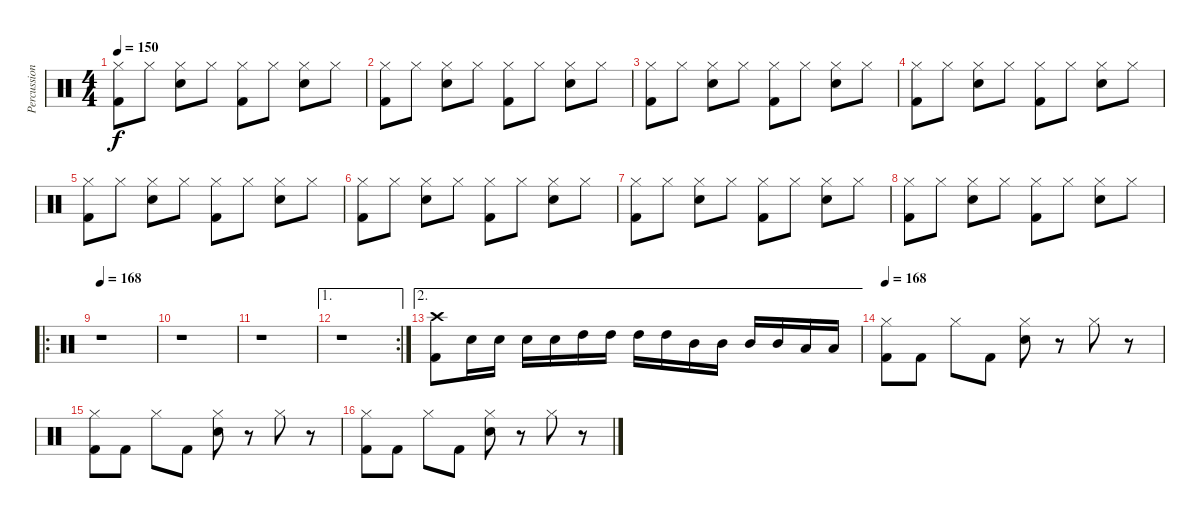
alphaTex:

\track ("Percussion" "Percussion") {instrument percussion}
\staff {score}
\articulation defaults
\ts (4 4)
\tempo 150
\clef neutral
\ks c
("Hi-Hat (closed)" "Kick (hit) 2").8{dy f} "Hi-Hat (closed)".8 ("Hi-Hat (closed)" "Snare (hit) 2").8 "Hi-Hat (closed)".8 ("Hi-Hat (closed)" "Kick (hit) 2").8 "Hi-Hat (closed)".8 ("Hi-Hat (closed)" "Snare (hit) 2").8 "Hi-Hat (closed)".8 |
("Hi-Hat (closed)" "Kick (hit) 2").8 "Hi-Hat (closed)".8 ("Hi-Hat (closed)" "Snare (hit) 2").8 "Hi-Hat (closed)".8 ("Hi-Hat (closed)" "Kick (hit) 2").8 "Hi-Hat (closed)".8 ("Hi-Hat (closed)" "Snare (hit) 2").8 "Hi-Hat (closed)".8 |
("Hi-Hat (closed)" "Kick (hit) 2").8 "Hi-Hat (closed)".8 ("Hi-Hat (closed)" "Snare (hit) 2").8 "Hi-Hat (closed)".8 ("Hi-Hat (closed)" "Kick (hit) 2").8 "Hi-Hat (closed)".8 ("Hi-Hat (closed)" "Snare (hit) 2").8 "Hi-Hat (closed)".8 |
("Hi-Hat (closed)" "Kick (hit) 2").8 "Hi-Hat (closed)".8 ("Hi-Hat (closed)" "Snare (hit) 2").8 "Hi-Hat (closed)".8 ("Hi-Hat (closed)" "Kick (hit) 2").8 "Hi-Hat (closed)".8 ("Hi-Hat (closed)" "Snare (hit) 2").8 "Hi-Hat (closed)".8 |
("Hi-Hat (closed)" "Kick (hit) 2").8 "Hi-Hat (closed)".8 ("Hi-Hat (closed)" "Snare (hit) 2").8 "Hi-Hat (closed)".8 ("Hi-Hat (closed)" "Kick (hit) 2").8 "Hi-Hat (closed)".8 ("Hi-Hat (closed)" "Snare (hit) 2").8 "Hi-Hat (closed)".8 |
("Hi-Hat (closed)" "Kick (hit) 2").8 "Hi-Hat (closed)".8 ("Hi-Hat (closed)" "Snare (hit) 2").8 "Hi-Hat (closed)".8 ("Hi-Hat (closed)" "Kick (hit) 2").8 "Hi-Hat (closed)".8 ("Hi-Hat (closed)" "Snare (hit) 2").8 "Hi-Hat (closed)".8 |
("Hi-Hat (closed)" "Kick (hit) 2").8 "Hi-Hat (closed)".8 ("Hi-Hat (closed)" "Snare (hit) 2").8 "Hi-Hat (closed)".8 ("Hi-Hat (closed)" "Kick (hit) 2").8 "Hi-Hat (closed)".8 ("Hi-Hat (closed)" "Snare (hit) 2").8 "Hi-Hat (closed)".8 |
("Hi-Hat (closed)" "Kick (hit) 2").8 "Hi-Hat (closed)".8 ("Hi-Hat (closed)" "Snare (hit) 2").8 "Hi-Hat (closed)".8 ("Hi-Hat (closed)" "Kick (hit) 2").8 "Hi-Hat (closed)".8 ("Hi-Hat (closed)" "Snare (hit) 2").8 "Hi-Hat (closed)".8 |
\ro
\tempo 168
r.1 |
r.1 |
r.1 |
\ae 1
\rc 2
r.1 |
\ae 2
("Crash high (hit)" "Kick (hit) 2").8 "Snare (hit) 2".16 "Snare (hit) 2".16 "Snare (hit) 2".16 "Snare (hit) 2".16 "High Tom (hit)".16 "High Tom (hit)".16 "High Tom (hit)".16 "High Tom (hit)".16 "Mid Tom (hit)".16 "Mid Tom (hit)".16 "Mid Tom (hit)".16 "Mid Tom (hit)".16 "Low Tom (hit)".16 "Low Tom (hit)".16 |
\tempo 168
("Hi-Hat (closed)" "Kick (hit) 2").8 "Kick (hit) 2".8 "Hi-Hat (closed)".8 "Kick (hit) 2".8 ("Hi-Hat (closed)" "Snare (hit) 2").8 r.8 "Hi-Hat (closed)".8 r.8 |
("Hi-Hat (closed)" "Kick (hit) 2").8 "Kick (hit) 2".8 "Hi-Hat (closed)".8 "Kick (hit) 2".8 ("Hi-Hat (closed)" "Snare (hit) 2").8 r.8 "Hi-Hat (closed)".8 r.8 |
("Hi-Hat (closed)" "Kick (hit) 2").8 "Kick (hit) 2".8 "Hi-Hat (closed)".8 "Kick (hit) 2".8 ("Hi-Hat (closed)" "Snare (hit) 2").8 r.8 "Hi-Hat (closed)".8 r.8
